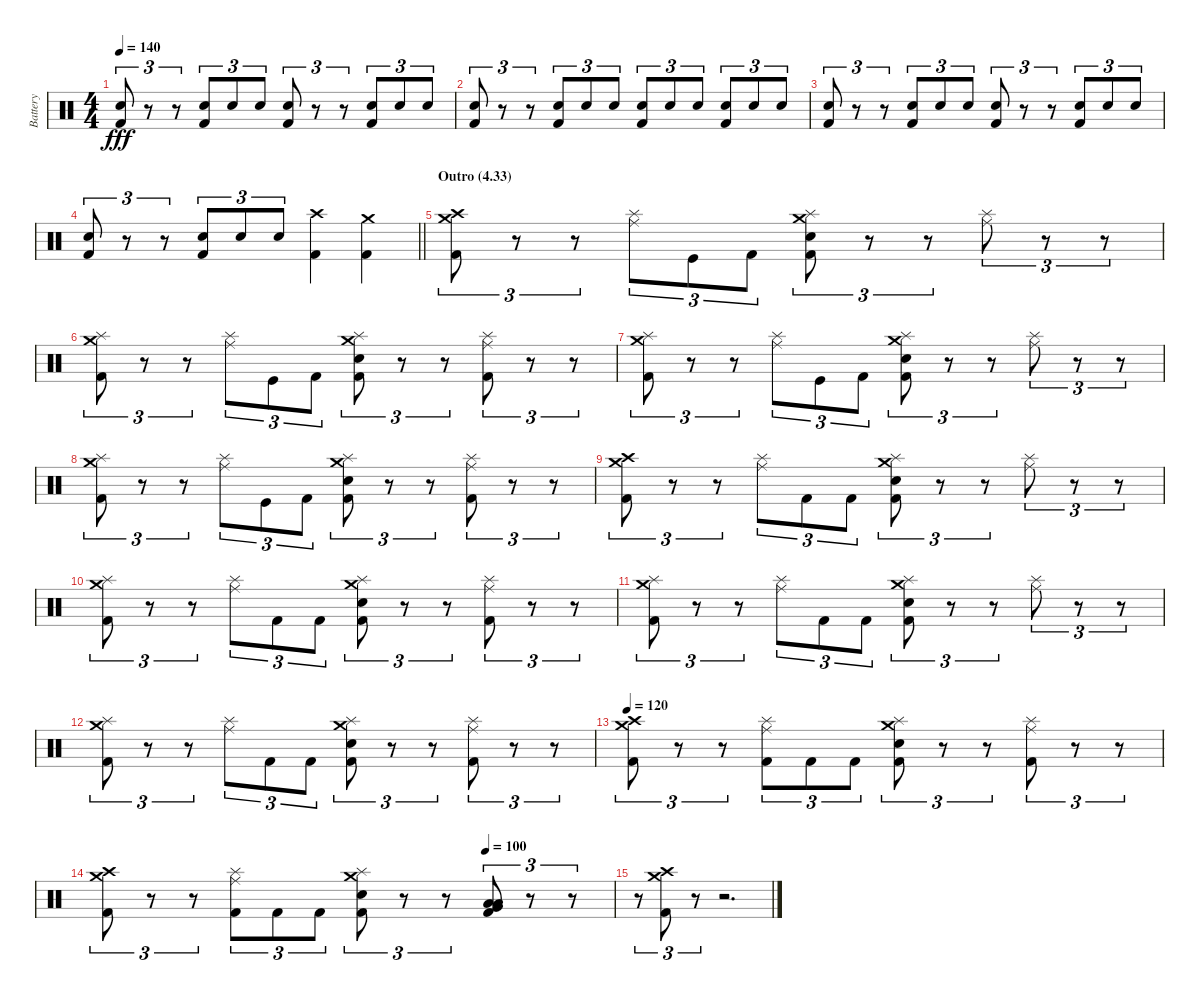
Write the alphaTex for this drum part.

\track ("Battery" "Battery") {instrument percussion}
\staff {score}
\articulation defaults
\ts (4 4)
\tempo 140
\clef neutral
\ks c
("Electric Snare (hit)" "Kick (hit) 2").8{tu (3 2) dy fff} r.8{tu (3 2)} r.8{tu (3 2)} ("Electric Snare (hit)" "Kick (hit) 2").8{tu (3 2)} "Electric Snare (hit)".8{tu (3 2)} "Electric Snare (hit)".8{tu (3 2)} ("Electric Snare (hit)" "Kick (hit) 2").8{tu (3 2)} r.8{tu (3 2)} r.8{tu (3 2)} ("Electric Snare (hit)" "Kick (hit) 2").8{tu (3 2)} "Electric Snare (hit)".8{tu (3 2)} "Electric Snare (hit)".8{tu (3 2)} |
("Electric Snare (hit)" "Kick (hit) 2").8{tu (3 2)} r.8{tu (3 2)} r.8{tu (3 2)} ("Electric Snare (hit)" "Kick (hit) 2").8{tu (3 2)} "Electric Snare (hit)".8{tu (3 2)} "Electric Snare (hit)".8{tu (3 2)} ("Electric Snare (hit)" "Kick (hit) 2").8{tu (3 2)} "Electric Snare (hit)".8{tu (3 2)} "Electric Snare (hit)".8{tu (3 2)} ("Electric Snare (hit)" "Kick (hit) 2").8{tu (3 2)} "Electric Snare (hit)".8{tu (3 2)} "Electric Snare (hit)".8{tu (3 2)} |
("Electric Snare (hit)" "Kick (hit) 2").8{tu (3 2)} r.8{tu (3 2)} r.8{tu (3 2)} ("Electric Snare (hit)" "Kick (hit) 2").8{tu (3 2)} "Electric Snare (hit)".8{tu (3 2)} "Electric Snare (hit)".8{tu (3 2)} ("Electric Snare (hit)" "Kick (hit) 2").8{tu (3 2)} r.8{tu (3 2)} r.8{tu (3 2)} ("Electric Snare (hit)" "Kick (hit) 2").8{tu (3 2)} "Electric Snare (hit)".8{tu (3 2)} "Electric Snare (hit)".8{tu (3 2)} |
\barLineRight lightlight
("Electric Snare (hit)" "Kick (hit) 2").8{tu (3 2)} r.8{tu (3 2)} r.8{tu (3 2)} ("Electric Snare (hit)" "Kick (hit) 2").8{tu (3 2)} "Electric Snare (hit)".8{tu (3 2)} "Electric Snare (hit)".8{tu (3 2)} ("Crash high (hit)" "Kick (hit) 2").4 ("Crash medium (hit)" "Kick (hit) 2").4 |
\section ("" "Outro (4.33)")
("Crash high (hit)" "Crash medium (hit)" "Kick (hit) 2").8{tu (3 2)} r.8{tu (3 2)} r.8{tu (3 2)} ("Ride (middle)" "Splash (hit)").8{tu (3 2)} "Kick (hit)".8{tu (3 2)} "Kick (hit) 2".8{tu (3 2)} ("Crash medium (hit)" "Splash (hit)" "Electric Snare (hit)" "Kick (hit) 2").8{tu (3 2)} r.8{tu (3 2)} r.8{tu (3 2)} ("Ride (middle)" "Splash (hit)").8{tu (3 2)} r.8{tu (3 2)} r.8{tu (3 2)} |
("Crash medium (hit)" "Splash (hit)" "Kick (hit) 2").8{tu (3 2)} r.8{tu (3 2)} r.8{tu (3 2)} ("Ride (middle)" "Splash (hit)").8{tu (3 2)} "Kick (hit)".8{tu (3 2)} "Kick (hit) 2".8{tu (3 2)} ("Crash medium (hit)" "Splash (hit)" "Electric Snare (hit)" "Kick (hit) 2").8{tu (3 2)} r.8{tu (3 2)} r.8{tu (3 2)} ("Ride (middle)" "Splash (hit)" "Kick (hit) 2").8{tu (3 2)} r.8{tu (3 2)} r.8{tu (3 2)} |
("Crash medium (hit)" "Splash (hit)" "Kick (hit) 2").8{tu (3 2)} r.8{tu (3 2)} r.8{tu (3 2)} ("Ride (middle)" "Splash (hit)").8{tu (3 2)} "Kick (hit)".8{tu (3 2)} "Kick (hit) 2".8{tu (3 2)} ("Crash medium (hit)" "Splash (hit)" "Electric Snare (hit)" "Kick (hit) 2").8{tu (3 2)} r.8{tu (3 2)} r.8{tu (3 2)} ("Ride (middle)" "Splash (hit)").8{tu (3 2)} r.8{tu (3 2)} r.8{tu (3 2)} |
("Crash medium (hit)" "Splash (hit)" "Kick (hit) 2").8{tu (3 2)} r.8{tu (3 2)} r.8{tu (3 2)} ("Ride (middle)" "Splash (hit)").8{tu (3 2)} "Kick (hit)".8{tu (3 2)} "Kick (hit) 2".8{tu (3 2)} ("Crash medium (hit)" "Splash (hit)" "Electric Snare (hit)" "Kick (hit) 2").8{tu (3 2)} r.8{tu (3 2)} r.8{tu (3 2)} ("Ride (middle)" "Splash (hit)" "Kick (hit) 2").8{tu (3 2)} r.8{tu (3 2)} r.8{tu (3 2)} |
("Crash high (hit)" "Crash medium (hit)" "Kick (hit) 2").8{tu (3 2)} r.8{tu (3 2)} r.8{tu (3 2)} ("Ride (middle)" "Splash (hit)").8{tu (3 2)} "Kick (hit) 2".8{tu (3 2)} "Kick (hit) 2".8{tu (3 2)} ("Crash medium (hit)" "Splash (hit)" "Electric Snare (hit)" "Kick (hit) 2").8{tu (3 2)} r.8{tu (3 2)} r.8{tu (3 2)} ("Ride (middle)" "Splash (hit)").8{tu (3 2)} r.8{tu (3 2)} r.8{tu (3 2)} |
("Crash medium (hit)" "Splash (hit)" "Kick (hit) 2").8{tu (3 2)} r.8{tu (3 2)} r.8{tu (3 2)} ("Ride (middle)" "Splash (hit)").8{tu (3 2)} "Kick (hit) 2".8{tu (3 2)} "Kick (hit) 2".8{tu (3 2)} ("Crash medium (hit)" "Splash (hit)" "Electric Snare (hit)" "Kick (hit) 2").8{tu (3 2)} r.8{tu (3 2)} r.8{tu (3 2)} ("Ride (middle)" "Splash (hit)" "Kick (hit) 2").8{tu (3 2)} r.8{tu (3 2)} r.8{tu (3 2)} |
("Crash medium (hit)" "Splash (hit)" "Kick (hit) 2").8{tu (3 2)} r.8{tu (3 2)} r.8{tu (3 2)} ("Ride (middle)" "Splash (hit)").8{tu (3 2)} "Kick (hit) 2".8{tu (3 2)} "Kick (hit) 2".8{tu (3 2)} ("Crash medium (hit)" "Splash (hit)" "Electric Snare (hit)" "Kick (hit) 2").8{tu (3 2)} r.8{tu (3 2)} r.8{tu (3 2)} ("Ride (middle)" "Splash (hit)").8{tu (3 2)} r.8{tu (3 2)} r.8{tu (3 2)} |
("Crash medium (hit)" "Splash (hit)" "Kick (hit) 2").8{tu (3 2)} r.8{tu (3 2)} r.8{tu (3 2)} ("Ride (middle)" "Splash (hit)").8{tu (3 2)} "Kick (hit) 2".8{tu (3 2)} "Kick (hit) 2".8{tu (3 2)} ("Crash medium (hit)" "Splash (hit)" "Electric Snare (hit)" "Kick (hit) 2").8{tu (3 2)} r.8{tu (3 2)} r.8{tu (3 2)} ("Ride (middle)" "Splash (hit)" "Kick (hit) 2").8{tu (3 2)} r.8{tu (3 2)} r.8{tu (3 2)} |
\tempo 120
("Crash high (hit)" "Crash medium (hit)" "Kick (hit) 2").8{tu (3 2)} r.8{tu (3 2)} r.8{tu (3 2)} ("Ride (middle)" "Splash (hit)" "Kick (hit) 2").8{tu (3 2)} "Kick (hit) 2".8{tu (3 2)} "Kick (hit) 2".8{tu (3 2)} ("Crash medium (hit)" "Splash (hit)" "Electric Snare (hit)" "Kick (hit) 2").8{tu (3 2)} r.8{tu (3 2)} r.8{tu (3 2)} ("Ride (middle)" "Splash (hit)" "Kick (hit) 2").8{tu (3 2)} r.8{tu (3 2)} r.8{tu (3 2)} |
\tempo (100 0.75)
("Crash high (hit)" "Crash medium (hit)" "Kick (hit) 2").8{tu (3 2)} r.8{tu (3 2)} r.8{tu (3 2)} ("Ride (middle)" "Splash (hit)" "Kick (hit) 2").8{tu (3 2)} "Kick (hit) 2".8{tu (3 2)} "Kick (hit) 2".8{tu (3 2)} ("Crash medium (hit)" "Splash (hit)" "Electric Snare (hit)" "Kick (hit) 2").8{tu (3 2)} r.8{tu (3 2)} r.8{tu (3 2)} ("Low Tom (hit)" "Very Low Tom (hit)" "Low Floor Tom (hit)" "Kick (hit) 2").8{tu (3 2)} r.8{tu (3 2)} r.8{tu (3 2)} |
r.8{tu (3 2)} ("Crash high (hit)" "Crash medium (hit)" "Kick (hit) 2").8{tu (3 2)} r.8{tu (3 2)} r.2{d}
